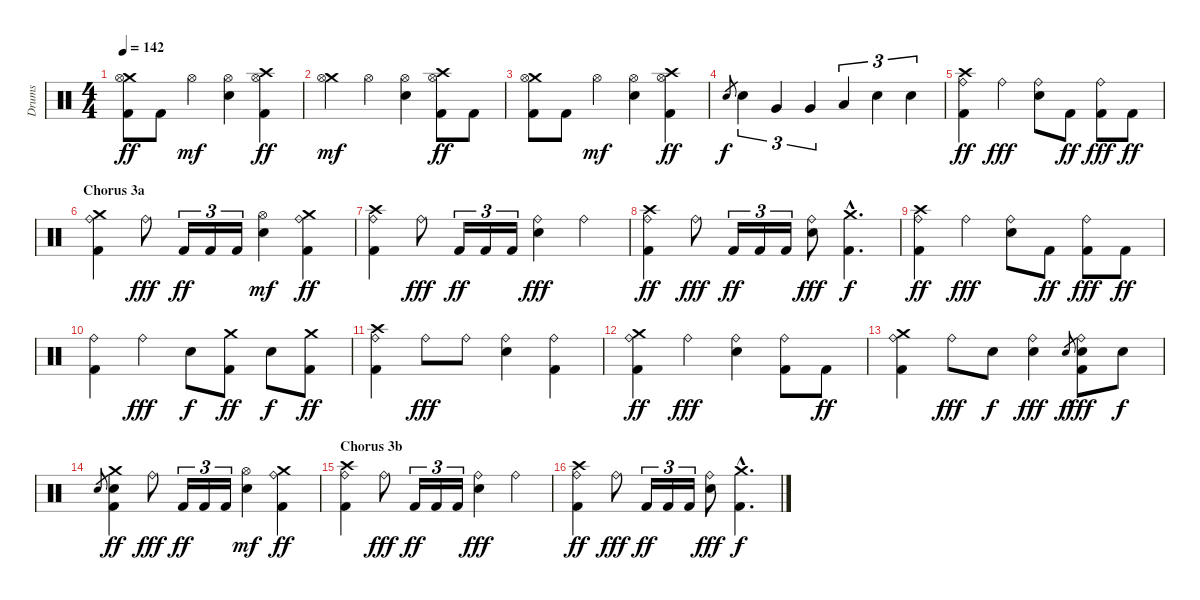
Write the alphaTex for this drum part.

\track ("Drums" "Drums") {instrument percussion}
\staff {score}
\articulation defaults
\ts (4 4)
\tempo 142
\clef neutral
\ks c
("Crash medium (hit)" "Hi-Hat (open)" "Kick (hit) 2").8{dy ff} "Kick (hit) 2".8 "Hi-Hat (open)".4{dy mf} ("Hi-Hat (open)" "Snare (hit) 2").4 ("Crash high (hit)" "Hi-Hat (open)" "Kick (hit) 2").4{dy ff} |
("Crash medium (hit)" "Hi-Hat (open)").4{dy mf} "Hi-Hat (open)".4 ("Hi-Hat (open)" "Snare (hit) 2").4 ("Crash high (hit)" "Hi-Hat (open)" "Kick (hit) 2").8{dy ff} "Kick (hit) 2".8 |
("Crash medium (hit)" "Hi-Hat (open)" "Kick (hit) 2").8 "Kick (hit) 2".8 "Hi-Hat (open)".4{dy mf} ("Hi-Hat (open)" "Snare (hit) 2").4 ("Crash high (hit)" "Hi-Hat (open)" "Kick (hit) 2").4{dy ff} |
"Snare (hit) 2".8{gr dy f} "Snare (hit) 2".4{tu (3 2)} "Very Low Tom (hit)".4{tu (3 2)} "Very Low Tom (hit)".4{tu (3 2)} "Low Floor Tom (hit)".4{tu (3 2)} "Snare (hit) 2".4{tu (3 2)} "Snare (hit) 2".4{tu (3 2)} |
("Crash high (hit)" "Ride (bell)" "Kick (hit) 2").4{dy ff} "Ride (bell)".4{dy fff} ("Ride (bell)" "Snare (hit) 2").8 "Kick (hit) 2".8{dy ff} ("Ride (bell)" "Kick (hit) 2").8{dy fff} "Kick (hit) 2".8{dy ff} |
\section ("" "Chorus 3a")
("Crash medium (hit)" "Ride (bell)" "Kick (hit) 2").4 "Ride (bell)".8{dy fff} "Kick (hit) 2".16{tu (3 2) dy ff} "Kick (hit) 2".16{tu (3 2)} "Kick (hit) 2".16{tu (3 2)} ("Hi-Hat (open)" "Snare (hit) 2").4{dy mf} ("Crash medium (hit)" "Ride (bell)" "Kick (hit) 2").4{dy ff} |
("Crash high (hit)" "Ride (bell)" "Kick (hit) 2").4 "Ride (bell)".8{dy fff} "Kick (hit) 2".16{tu (3 2) dy ff} "Kick (hit) 2".16{tu (3 2)} "Kick (hit) 2".16{tu (3 2)} ("Ride (bell)" "Snare (hit) 2").4{dy fff} "Ride (bell)".4 |
("Crash high (hit)" "Ride (bell)" "Kick (hit) 2").4{dy ff} "Ride (bell)".8{dy fff} "Kick (hit) 2".16{tu (3 2) dy ff} "Kick (hit) 2".16{tu (3 2)} "Kick (hit) 2".16{tu (3 2)} ("Ride (bell)" "Snare (hit) 2").8{dy fff} ("Crash medium (hit)"{hac} "Kick (hit) 2"{hac}).4{d dy f} |
("Crash high (hit)" "Ride (bell)" "Kick (hit) 2").4{dy ff} "Ride (bell)".4{dy fff} ("Ride (bell)" "Snare (hit) 2").8 "Kick (hit) 2".8{dy ff} ("Ride (bell)" "Kick (hit) 2").8{dy fff} "Kick (hit) 2".8{dy ff} |
("Ride (bell)" "Kick (hit) 2").4 "Ride (bell)".4{dy fff} "Snare (hit) 2".8{dy f} ("Crash medium (hit)" "Kick (hit) 2").8{dy ff} "Snare (hit) 2".8{dy f} ("Crash medium (hit)" "Kick (hit) 2").8{dy ff} |
("Crash high (hit)" "Ride (bell)" "Kick (hit) 2").4 "Ride (bell)".8{dy fff} "Ride (bell)".8 ("Ride (bell)" "Snare (hit) 2").4 ("Ride (bell)" "Kick (hit) 2").4 |
("Crash medium (hit)" "Ride (bell)" "Kick (hit) 2").4{dy ff} "Ride (bell)".4{dy fff} ("Ride (bell)" "Snare (hit) 2").4 ("Ride (bell)" "Kick (hit) 2").8 "Kick (hit) 2".8{dy ff} |
("Crash medium (hit)" "Ride (bell)" "Kick (hit) 2").4 "Ride (bell)".8{dy fff} "Snare (hit) 2".8{dy f} ("Ride (bell)" "Snare (hit) 2").4{dy fff} "Snare (hit) 2".8{gr dy f} ("Ride (bell)" "Snare (hit) 2" "Kick (hit) 2").8{dy fff} "Snare (hit) 2".8{dy f} |
"Snare (hit) 2".8{gr} ("Crash medium (hit)" "Snare (hit) 2" "Kick (hit) 2").4{dy ff} "Ride (bell)".8{dy fff} "Kick (hit) 2".16{tu (3 2) dy ff} "Kick (hit) 2".16{tu (3 2)} "Kick (hit) 2".16{tu (3 2)} ("Hi-Hat (open)" "Snare (hit) 2").4{dy mf} ("Crash medium (hit)" "Ride (bell)" "Kick (hit) 2").4{dy ff} |
\section ("" "Chorus 3b")
("Crash high (hit)" "Ride (bell)" "Kick (hit) 2").4 "Ride (bell)".8{dy fff} "Kick (hit) 2".16{tu (3 2) dy ff} "Kick (hit) 2".16{tu (3 2)} "Kick (hit) 2".16{tu (3 2)} ("Ride (bell)" "Snare (hit) 2").4{dy fff} "Ride (bell)".4 |
("Crash high (hit)" "Ride (bell)" "Kick (hit) 2").4{dy ff} "Ride (bell)".8{dy fff} "Kick (hit) 2".16{tu (3 2) dy ff} "Kick (hit) 2".16{tu (3 2)} "Kick (hit) 2".16{tu (3 2)} ("Ride (bell)" "Snare (hit) 2").8{dy fff} ("Crash medium (hit)"{hac} "Kick (hit) 2"{hac}).4{d dy f}
